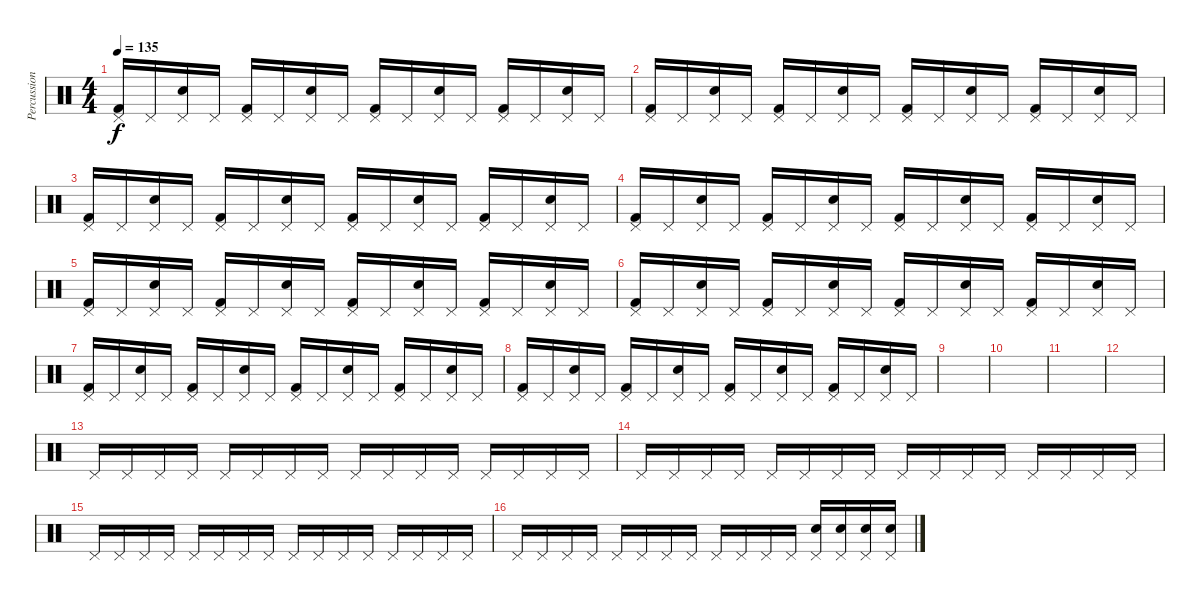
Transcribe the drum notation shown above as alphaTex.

\track ("Percussion" "Percussion") {instrument percussion}
\staff {score}
\articulation defaults
\ts (4 4)
\tempo 135
\clef neutral
\ks c
("Kick (hit) 2" "Pedal Hi-Hat (hit)").16{dy f} "Pedal Hi-Hat (hit)".16 ("Snare (hit) 2" "Pedal Hi-Hat (hit)").16 "Pedal Hi-Hat (hit)".16 ("Kick (hit) 2" "Pedal Hi-Hat (hit)").16 "Pedal Hi-Hat (hit)".16 ("Snare (hit) 2" "Pedal Hi-Hat (hit)").16 "Pedal Hi-Hat (hit)".16 ("Kick (hit) 2" "Pedal Hi-Hat (hit)").16 "Pedal Hi-Hat (hit)".16 ("Snare (hit) 2" "Pedal Hi-Hat (hit)").16 "Pedal Hi-Hat (hit)".16 ("Kick (hit) 2" "Pedal Hi-Hat (hit)").16 "Pedal Hi-Hat (hit)".16 ("Snare (hit) 2" "Pedal Hi-Hat (hit)").16 "Pedal Hi-Hat (hit)".16 |
("Kick (hit) 2" "Pedal Hi-Hat (hit)").16 "Pedal Hi-Hat (hit)".16 ("Snare (hit) 2" "Pedal Hi-Hat (hit)").16 "Pedal Hi-Hat (hit)".16 ("Kick (hit) 2" "Pedal Hi-Hat (hit)").16 "Pedal Hi-Hat (hit)".16 ("Snare (hit) 2" "Pedal Hi-Hat (hit)").16 "Pedal Hi-Hat (hit)".16 ("Kick (hit) 2" "Pedal Hi-Hat (hit)").16 "Pedal Hi-Hat (hit)".16 ("Snare (hit) 2" "Pedal Hi-Hat (hit)").16 "Pedal Hi-Hat (hit)".16 ("Kick (hit) 2" "Pedal Hi-Hat (hit)").16 "Pedal Hi-Hat (hit)".16 ("Snare (hit) 2" "Pedal Hi-Hat (hit)").16 "Pedal Hi-Hat (hit)".16 |
("Kick (hit) 2" "Pedal Hi-Hat (hit)").16 "Pedal Hi-Hat (hit)".16 ("Snare (hit) 2" "Pedal Hi-Hat (hit)").16 "Pedal Hi-Hat (hit)".16 ("Kick (hit) 2" "Pedal Hi-Hat (hit)").16 "Pedal Hi-Hat (hit)".16 ("Snare (hit) 2" "Pedal Hi-Hat (hit)").16 "Pedal Hi-Hat (hit)".16 ("Kick (hit) 2" "Pedal Hi-Hat (hit)").16 "Pedal Hi-Hat (hit)".16 ("Snare (hit) 2" "Pedal Hi-Hat (hit)").16 "Pedal Hi-Hat (hit)".16 ("Kick (hit) 2" "Pedal Hi-Hat (hit)").16 "Pedal Hi-Hat (hit)".16 ("Snare (hit) 2" "Pedal Hi-Hat (hit)").16 "Pedal Hi-Hat (hit)".16 |
("Kick (hit) 2" "Pedal Hi-Hat (hit)").16 "Pedal Hi-Hat (hit)".16 ("Snare (hit) 2" "Pedal Hi-Hat (hit)").16 "Pedal Hi-Hat (hit)".16 ("Kick (hit) 2" "Pedal Hi-Hat (hit)").16 "Pedal Hi-Hat (hit)".16 ("Snare (hit) 2" "Pedal Hi-Hat (hit)").16 "Pedal Hi-Hat (hit)".16 ("Kick (hit) 2" "Pedal Hi-Hat (hit)").16 "Pedal Hi-Hat (hit)".16 ("Snare (hit) 2" "Pedal Hi-Hat (hit)").16 "Pedal Hi-Hat (hit)".16 ("Kick (hit) 2" "Pedal Hi-Hat (hit)").16 "Pedal Hi-Hat (hit)".16 ("Snare (hit) 2" "Pedal Hi-Hat (hit)").16 "Pedal Hi-Hat (hit)".16 |
("Kick (hit) 2" "Pedal Hi-Hat (hit)").16 "Pedal Hi-Hat (hit)".16 ("Snare (hit) 2" "Pedal Hi-Hat (hit)").16 "Pedal Hi-Hat (hit)".16 ("Kick (hit) 2" "Pedal Hi-Hat (hit)").16 "Pedal Hi-Hat (hit)".16 ("Snare (hit) 2" "Pedal Hi-Hat (hit)").16 "Pedal Hi-Hat (hit)".16 ("Kick (hit) 2" "Pedal Hi-Hat (hit)").16 "Pedal Hi-Hat (hit)".16 ("Snare (hit) 2" "Pedal Hi-Hat (hit)").16 "Pedal Hi-Hat (hit)".16 ("Kick (hit) 2" "Pedal Hi-Hat (hit)").16 "Pedal Hi-Hat (hit)".16 ("Snare (hit) 2" "Pedal Hi-Hat (hit)").16 "Pedal Hi-Hat (hit)".16 |
("Kick (hit) 2" "Pedal Hi-Hat (hit)").16 "Pedal Hi-Hat (hit)".16 ("Snare (hit) 2" "Pedal Hi-Hat (hit)").16 "Pedal Hi-Hat (hit)".16 ("Kick (hit) 2" "Pedal Hi-Hat (hit)").16 "Pedal Hi-Hat (hit)".16 ("Snare (hit) 2" "Pedal Hi-Hat (hit)").16 "Pedal Hi-Hat (hit)".16 ("Kick (hit) 2" "Pedal Hi-Hat (hit)").16 "Pedal Hi-Hat (hit)".16 ("Snare (hit) 2" "Pedal Hi-Hat (hit)").16 "Pedal Hi-Hat (hit)".16 ("Kick (hit) 2" "Pedal Hi-Hat (hit)").16 "Pedal Hi-Hat (hit)".16 ("Snare (hit) 2" "Pedal Hi-Hat (hit)").16 "Pedal Hi-Hat (hit)".16 |
("Kick (hit) 2" "Pedal Hi-Hat (hit)").16 "Pedal Hi-Hat (hit)".16 ("Snare (hit) 2" "Pedal Hi-Hat (hit)").16 "Pedal Hi-Hat (hit)".16 ("Kick (hit) 2" "Pedal Hi-Hat (hit)").16 "Pedal Hi-Hat (hit)".16 ("Snare (hit) 2" "Pedal Hi-Hat (hit)").16 "Pedal Hi-Hat (hit)".16 ("Kick (hit) 2" "Pedal Hi-Hat (hit)").16 "Pedal Hi-Hat (hit)".16 ("Snare (hit) 2" "Pedal Hi-Hat (hit)").16 "Pedal Hi-Hat (hit)".16 ("Kick (hit) 2" "Pedal Hi-Hat (hit)").16 "Pedal Hi-Hat (hit)".16 ("Snare (hit) 2" "Pedal Hi-Hat (hit)").16 "Pedal Hi-Hat (hit)".16 |
("Kick (hit) 2" "Pedal Hi-Hat (hit)").16 "Pedal Hi-Hat (hit)".16 ("Snare (hit) 2" "Pedal Hi-Hat (hit)").16 "Pedal Hi-Hat (hit)".16 ("Kick (hit) 2" "Pedal Hi-Hat (hit)").16 "Pedal Hi-Hat (hit)".16 ("Snare (hit) 2" "Pedal Hi-Hat (hit)").16 "Pedal Hi-Hat (hit)".16 ("Kick (hit) 2" "Pedal Hi-Hat (hit)").16 "Pedal Hi-Hat (hit)".16 ("Snare (hit) 2" "Pedal Hi-Hat (hit)").16 "Pedal Hi-Hat (hit)".16 ("Kick (hit) 2" "Pedal Hi-Hat (hit)").16 "Pedal Hi-Hat (hit)".16 ("Snare (hit) 2" "Pedal Hi-Hat (hit)").16 "Pedal Hi-Hat (hit)".16 |
|
|
|
|
"Pedal Hi-Hat (hit)".16 "Pedal Hi-Hat (hit)".16 "Pedal Hi-Hat (hit)".16 "Pedal Hi-Hat (hit)".16 "Pedal Hi-Hat (hit)".16 "Pedal Hi-Hat (hit)".16 "Pedal Hi-Hat (hit)".16 "Pedal Hi-Hat (hit)".16 "Pedal Hi-Hat (hit)".16 "Pedal Hi-Hat (hit)".16 "Pedal Hi-Hat (hit)".16 "Pedal Hi-Hat (hit)".16 "Pedal Hi-Hat (hit)".16 "Pedal Hi-Hat (hit)".16 "Pedal Hi-Hat (hit)".16 "Pedal Hi-Hat (hit)".16 |
"Pedal Hi-Hat (hit)".16 "Pedal Hi-Hat (hit)".16 "Pedal Hi-Hat (hit)".16 "Pedal Hi-Hat (hit)".16 "Pedal Hi-Hat (hit)".16 "Pedal Hi-Hat (hit)".16 "Pedal Hi-Hat (hit)".16 "Pedal Hi-Hat (hit)".16 "Pedal Hi-Hat (hit)".16 "Pedal Hi-Hat (hit)".16 "Pedal Hi-Hat (hit)".16 "Pedal Hi-Hat (hit)".16 "Pedal Hi-Hat (hit)".16 "Pedal Hi-Hat (hit)".16 "Pedal Hi-Hat (hit)".16 "Pedal Hi-Hat (hit)".16 |
"Pedal Hi-Hat (hit)".16 "Pedal Hi-Hat (hit)".16 "Pedal Hi-Hat (hit)".16 "Pedal Hi-Hat (hit)".16 "Pedal Hi-Hat (hit)".16 "Pedal Hi-Hat (hit)".16 "Pedal Hi-Hat (hit)".16 "Pedal Hi-Hat (hit)".16 "Pedal Hi-Hat (hit)".16 "Pedal Hi-Hat (hit)".16 "Pedal Hi-Hat (hit)".16 "Pedal Hi-Hat (hit)".16 "Pedal Hi-Hat (hit)".16 "Pedal Hi-Hat (hit)".16 "Pedal Hi-Hat (hit)".16 "Pedal Hi-Hat (hit)".16 |
"Pedal Hi-Hat (hit)".16 "Pedal Hi-Hat (hit)".16 "Pedal Hi-Hat (hit)".16 "Pedal Hi-Hat (hit)".16 "Pedal Hi-Hat (hit)".16 "Pedal Hi-Hat (hit)".16 "Pedal Hi-Hat (hit)".16 "Pedal Hi-Hat (hit)".16 "Pedal Hi-Hat (hit)".16 "Pedal Hi-Hat (hit)".16 "Pedal Hi-Hat (hit)".16 "Pedal Hi-Hat (hit)".16 ("Snare (hit) 2" "Pedal Hi-Hat (hit)").16 ("Snare (hit) 2" "Pedal Hi-Hat (hit)").16 ("Snare (hit) 2" "Pedal Hi-Hat (hit)").16 ("Snare (hit) 2" "Pedal Hi-Hat (hit)").16
